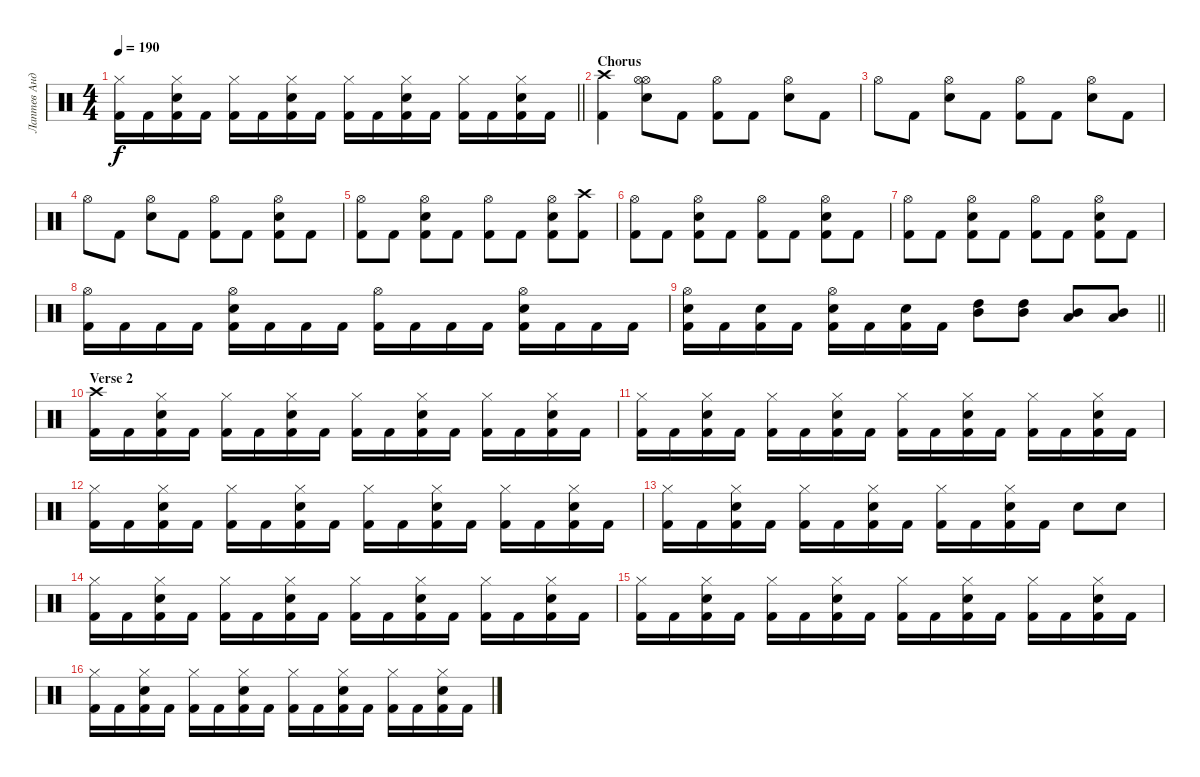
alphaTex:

\track ("Лаптев Андрей" "Лаптев Анд") {instrument percussion}
\staff {score}
\articulation defaults
\ts (4 4)
\tempo 190
\clef neutral
\barLineRight lightlight
\ks c
("Hi-Hat (closed)" "Kick (hit) 2").16{dy f} "Kick (hit) 2".16 ("Electric Snare (hit)" "Hi-Hat (closed)" "Kick (hit) 2").16 "Kick (hit) 2".16 ("Hi-Hat (closed)" "Kick (hit) 2").16 "Kick (hit) 2".16 ("Electric Snare (hit)" "Hi-Hat (closed)" "Kick (hit) 2").16 "Kick (hit) 2".16 ("Hi-Hat (closed)" "Kick (hit) 2").16 "Kick (hit) 2".16 ("Electric Snare (hit)" "Hi-Hat (closed)" "Kick (hit) 2").16 "Kick (hit) 2".16 ("Hi-Hat (closed)" "Kick (hit) 2").16 "Kick (hit) 2".16 ("Electric Snare (hit)" "Hi-Hat (closed)" "Kick (hit) 2").16 "Kick (hit) 2".16 |
\section ("" "Chorus")
("Crash high (hit)" "Kick (hit) 2").4 ("Hi-Hat (open)" "Hi-Hat (open)" "Electric Snare (hit)").8 "Kick (hit) 2".8 ("Hi-Hat (open)" "Kick (hit) 2").8 "Kick (hit) 2".8 ("Electric Snare (hit)" "Hi-Hat (open)").8 "Kick (hit) 2".8 |
"Hi-Hat (open)".8 "Kick (hit) 2".8 ("Electric Snare (hit)" "Hi-Hat (open)").8 "Kick (hit) 2".8 ("Hi-Hat (open)" "Kick (hit) 2").8 "Kick (hit) 2".8 ("Electric Snare (hit)" "Hi-Hat (open)").8 "Kick (hit) 2".8 |
"Hi-Hat (open)".8 "Kick (hit) 2".8 ("Electric Snare (hit)" "Hi-Hat (open)").8 "Kick (hit) 2".8 ("Hi-Hat (open)" "Kick (hit) 2").8 "Kick (hit) 2".8 ("Electric Snare (hit)" "Hi-Hat (open)" "Kick (hit) 2").8 "Kick (hit) 2".8 |
("Hi-Hat (open)" "Kick (hit) 2").8 "Kick (hit) 2".8 ("Electric Snare (hit)" "Hi-Hat (open)" "Kick (hit) 2").8 "Kick (hit) 2".8 ("Hi-Hat (open)" "Kick (hit) 2").8 "Kick (hit) 2".8 ("Hi-Hat (open)" "Electric Snare (hit)" "Kick (hit) 2").8 ("Crash high (hit)" "Kick (hit) 2").8 |
("Hi-Hat (open)" "Kick (hit) 2").8 "Kick (hit) 2".8 ("Electric Snare (hit)" "Hi-Hat (open)" "Kick (hit) 2").8 "Kick (hit) 2".8 ("Hi-Hat (open)" "Kick (hit) 2").8 "Kick (hit) 2".8 ("Hi-Hat (open)" "Electric Snare (hit)" "Kick (hit) 2").8 "Kick (hit) 2".8 |
("Hi-Hat (open)" "Kick (hit) 2").8 "Kick (hit) 2".8 ("Hi-Hat (open)" "Electric Snare (hit)" "Kick (hit) 2").8 "Kick (hit) 2".8 ("Hi-Hat (open)" "Kick (hit) 2").8 "Kick (hit) 2".8 ("Electric Snare (hit)" "Hi-Hat (open)" "Kick (hit) 2").8 "Kick (hit) 2".8 |
("Hi-Hat (open)" "Kick (hit) 2").16 "Kick (hit) 2".16 "Kick (hit) 2".16 "Kick (hit) 2".16 ("Electric Snare (hit)" "Hi-Hat (open)" "Kick (hit) 2").16 "Kick (hit) 2".16 "Kick (hit) 2".16 "Kick (hit) 2".16 ("Hi-Hat (open)" "Kick (hit) 2").16 "Kick (hit) 2".16 "Kick (hit) 2".16 "Kick (hit) 2".16 ("Hi-Hat (open)" "Electric Snare (hit)" "Kick (hit) 2").16 "Kick (hit) 2".16 "Kick (hit) 2".16 "Kick (hit) 2".16 |
\barLineRight lightlight
("Hi-Hat (open)" "Electric Snare (hit)" "Kick (hit) 2").16 "Kick (hit) 2".16 ("Electric Snare (hit)" "Kick (hit) 2").16 "Kick (hit) 2".16 ("Electric Snare (hit)" "Hi-Hat (open)" "Kick (hit) 2").16 "Kick (hit) 2".16 ("Electric Snare (hit)" "Kick (hit) 2").16 "Kick (hit) 2".16 ("Mid Tom (hit)" "High Tom (hit)").8 ("Mid Tom (hit)" "High Tom (hit)").8 ("Low Tom (hit)" "Mid Tom (hit)").8 ("Low Tom (hit)" "Mid Tom (hit)").8 |
\section ("" "Verse 2")
("Crash high (hit)" "Kick (hit) 2").16 "Kick (hit) 2".16 ("Electric Snare (hit)" "Hi-Hat (closed)" "Kick (hit) 2").16 "Kick (hit) 2".16 ("Hi-Hat (closed)" "Kick (hit) 2").16 "Kick (hit) 2".16 ("Electric Snare (hit)" "Hi-Hat (closed)" "Kick (hit) 2").16 "Kick (hit) 2".16 ("Hi-Hat (closed)" "Kick (hit) 2").16 "Kick (hit) 2".16 ("Hi-Hat (closed)" "Electric Snare (hit)" "Kick (hit) 2").16 "Kick (hit) 2".16 ("Hi-Hat (closed)" "Kick (hit) 2").16 "Kick (hit) 2".16 ("Electric Snare (hit)" "Hi-Hat (closed)" "Kick (hit) 2").16 "Kick (hit) 2".16 |
("Hi-Hat (closed)" "Kick (hit) 2").16 "Kick (hit) 2".16 ("Hi-Hat (closed)" "Electric Snare (hit)" "Kick (hit) 2").16 "Kick (hit) 2".16 ("Hi-Hat (closed)" "Kick (hit) 2").16 "Kick (hit) 2".16 ("Hi-Hat (closed)" "Electric Snare (hit)" "Kick (hit) 2").16 "Kick (hit) 2".16 ("Hi-Hat (closed)" "Kick (hit) 2").16 "Kick (hit) 2".16 ("Hi-Hat (closed)" "Electric Snare (hit)" "Kick (hit) 2").16 "Kick (hit) 2".16 ("Hi-Hat (closed)" "Kick (hit) 2").16 "Kick (hit) 2".16 ("Hi-Hat (closed)" "Electric Snare (hit)" "Kick (hit) 2").16 "Kick (hit) 2".16 |
("Hi-Hat (closed)" "Kick (hit) 2").16 "Kick (hit) 2".16 ("Hi-Hat (closed)" "Electric Snare (hit)" "Kick (hit) 2").16 "Kick (hit) 2".16 ("Hi-Hat (closed)" "Kick (hit) 2").16 "Kick (hit) 2".16 ("Hi-Hat (closed)" "Electric Snare (hit)" "Kick (hit) 2").16 "Kick (hit) 2".16 ("Hi-Hat (closed)" "Kick (hit) 2").16 "Kick (hit) 2".16 ("Hi-Hat (closed)" "Electric Snare (hit)" "Kick (hit) 2").16 "Kick (hit) 2".16 ("Hi-Hat (closed)" "Kick (hit) 2").16 "Kick (hit) 2".16 ("Hi-Hat (closed)" "Electric Snare (hit)" "Kick (hit) 2").16 "Kick (hit) 2".16 |
("Hi-Hat (closed)" "Kick (hit) 2").16 "Kick (hit) 2".16 ("Hi-Hat (closed)" "Electric Snare (hit)" "Kick (hit) 2").16 "Kick (hit) 2".16 ("Hi-Hat (closed)" "Kick (hit) 2").16 "Kick (hit) 2".16 ("Hi-Hat (closed)" "Electric Snare (hit)" "Kick (hit) 2").16 "Kick (hit) 2".16 ("Hi-Hat (closed)" "Kick (hit) 2").16 "Kick (hit) 2".16 ("Hi-Hat (closed)" "Electric Snare (hit)" "Kick (hit) 2").16 "Kick (hit) 2".16 "Electric Snare (hit)".8 "Electric Snare (hit)".8 |
("Hi-Hat (closed)" "Kick (hit) 2").16 "Kick (hit) 2".16 ("Hi-Hat (closed)" "Electric Snare (hit)" "Kick (hit) 2").16 "Kick (hit) 2".16 ("Hi-Hat (closed)" "Kick (hit) 2").16 "Kick (hit) 2".16 ("Hi-Hat (closed)" "Electric Snare (hit)" "Kick (hit) 2").16 "Kick (hit) 2".16 ("Hi-Hat (closed)" "Kick (hit) 2").16 "Kick (hit) 2".16 ("Hi-Hat (closed)" "Electric Snare (hit)" "Kick (hit) 2").16 "Kick (hit) 2".16 ("Hi-Hat (closed)" "Kick (hit) 2").16 "Kick (hit) 2".16 ("Hi-Hat (closed)" "Electric Snare (hit)" "Kick (hit) 2").16 "Kick (hit) 2".16 |
("Hi-Hat (closed)" "Kick (hit) 2").16 "Kick (hit) 2".16 ("Hi-Hat (closed)" "Electric Snare (hit)" "Kick (hit) 2").16 "Kick (hit) 2".16 ("Hi-Hat (closed)" "Kick (hit) 2").16 "Kick (hit) 2".16 ("Hi-Hat (closed)" "Electric Snare (hit)" "Kick (hit) 2").16 "Kick (hit) 2".16 ("Hi-Hat (closed)" "Kick (hit) 2").16 "Kick (hit) 2".16 ("Hi-Hat (closed)" "Electric Snare (hit)" "Kick (hit) 2").16 "Kick (hit) 2".16 ("Hi-Hat (closed)" "Kick (hit) 2").16 "Kick (hit) 2".16 ("Hi-Hat (closed)" "Electric Snare (hit)" "Kick (hit) 2").16 "Kick (hit) 2".16 |
("Hi-Hat (closed)" "Kick (hit) 2").16 "Kick (hit) 2".16 ("Hi-Hat (closed)" "Electric Snare (hit)" "Kick (hit) 2").16 "Kick (hit) 2".16 ("Hi-Hat (closed)" "Kick (hit) 2").16 "Kick (hit) 2".16 ("Hi-Hat (closed)" "Electric Snare (hit)" "Kick (hit) 2").16 "Kick (hit) 2".16 ("Hi-Hat (closed)" "Kick (hit) 2").16 "Kick (hit) 2".16 ("Hi-Hat (closed)" "Electric Snare (hit)" "Kick (hit) 2").16 "Kick (hit) 2".16 ("Hi-Hat (closed)" "Kick (hit) 2").16 "Kick (hit) 2".16 ("Hi-Hat (closed)" "Electric Snare (hit)" "Kick (hit) 2").16 "Kick (hit) 2".16
